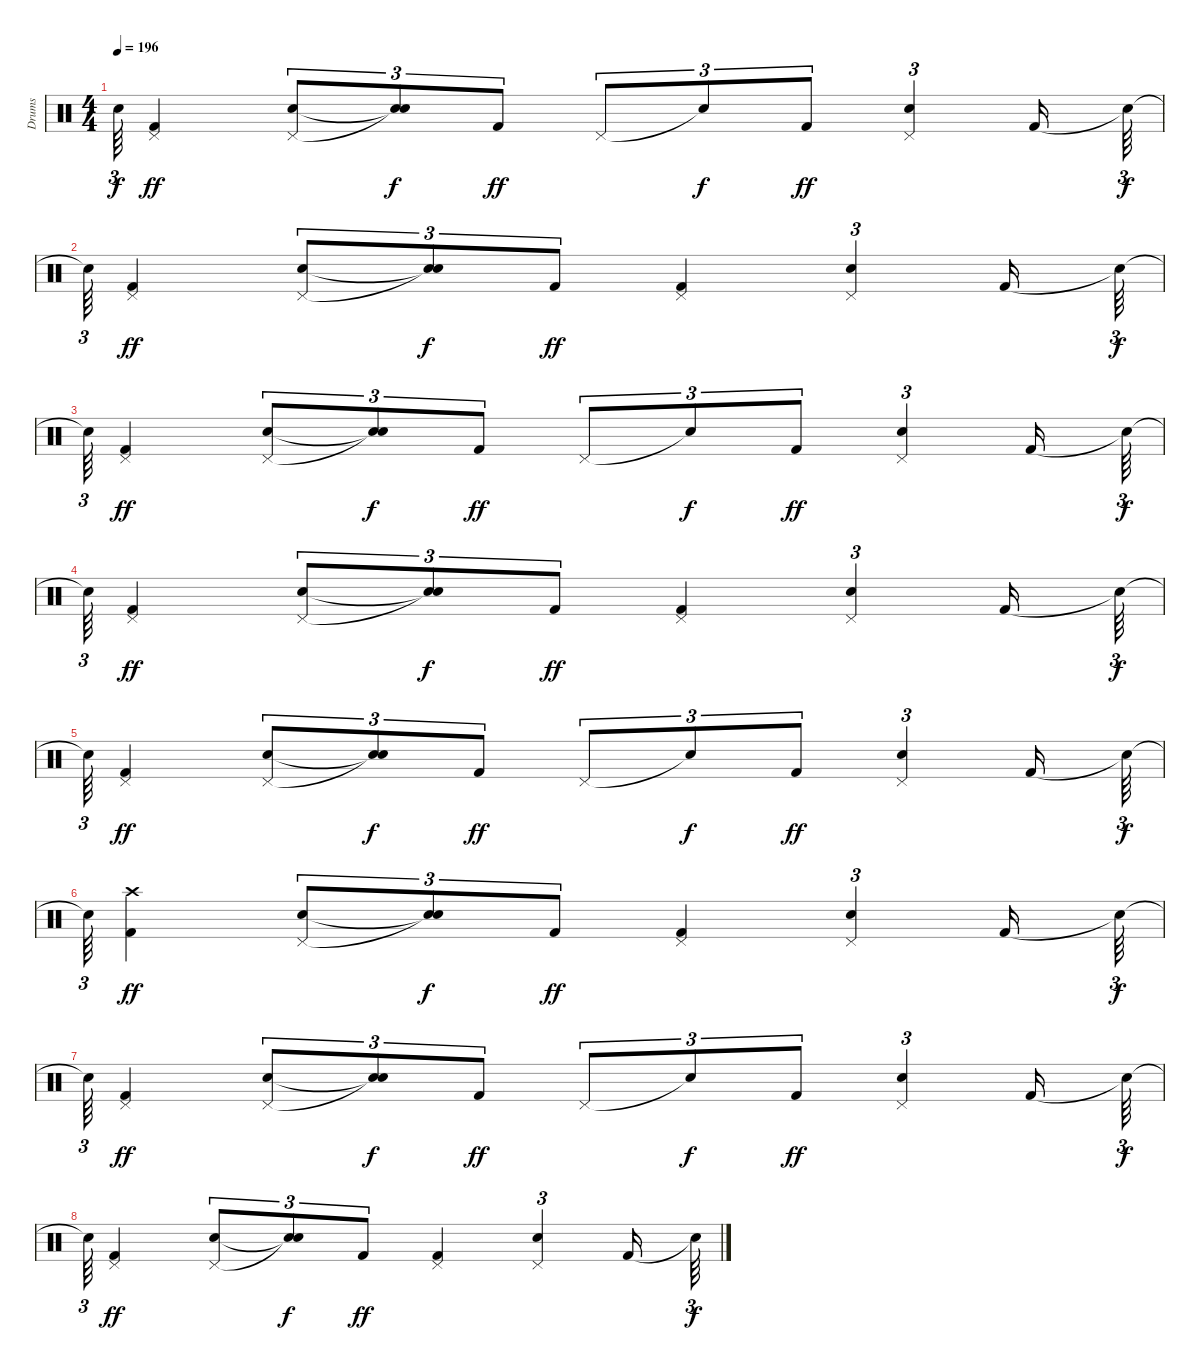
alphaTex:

\track ("Drums" "Drums") {instrument percussion}
\staff {score}
\articulation defaults
\ts (4 4)
\tempo 196
\clef neutral
\ks c "Snare (hit)"{t}.64{tu (3 2) dy f}
("Pedal Hi-Hat (hit)" "Kick (hit) 2").4{dy ff} ("Pedal Hi-Hat (hit)" "Electric Snare (hit)").8{tu (3 2)} ("Snare (hit)"{t} "Snare (hit)"{t}).8{tu (3 2) dy f} "Kick (hit) 2".8{tu (3 2) dy ff} "Pedal Hi-Hat (hit)".8{tu (3 2)} "Snare (hit)"{t}.8{tu (3 2) dy f} "Kick (hit) 2".8{tu (3 2) dy ff} ("Pedal Hi-Hat (hit)" "Electric Snare (hit)").4{tu (3 2)} "Kick (hit) 2".16 "Snare (hit)"{t}.64{tu (3 2) dy f} |
"Snare (hit)"{t}.64{tu (3 2)} ("Pedal Hi-Hat (hit)" "Kick (hit) 2").4{dy ff} ("Pedal Hi-Hat (hit)" "Electric Snare (hit)").8{tu (3 2)} ("Snare (hit)"{t} "Snare (hit)"{t}).8{tu (3 2) dy f} "Kick (hit) 2".8{tu (3 2) dy ff} ("Pedal Hi-Hat (hit)" "Kick (hit) 2").4 ("Pedal Hi-Hat (hit)" "Electric Snare (hit)").4{tu (3 2)} "Kick (hit) 2".16 "Snare (hit)"{t}.64{tu (3 2) dy f} |
"Snare (hit)"{t}.64{tu (3 2)} ("Pedal Hi-Hat (hit)" "Kick (hit) 2").4{dy ff} ("Pedal Hi-Hat (hit)" "Electric Snare (hit)").8{tu (3 2)} ("Snare (hit)"{t} "Snare (hit)"{t}).8{tu (3 2) dy f} "Kick (hit) 2".8{tu (3 2) dy ff} "Pedal Hi-Hat (hit)".8{tu (3 2)} "Snare (hit)"{t}.8{tu (3 2) dy f} "Kick (hit) 2".8{tu (3 2) dy ff} ("Pedal Hi-Hat (hit)" "Electric Snare (hit)").4{tu (3 2)} "Kick (hit) 2".16 "Snare (hit)"{t}.64{tu (3 2) dy f} |
"Snare (hit)"{t}.64{tu (3 2)} ("Pedal Hi-Hat (hit)" "Kick (hit) 2").4{dy ff} ("Pedal Hi-Hat (hit)" "Electric Snare (hit)").8{tu (3 2)} ("Snare (hit)"{t} "Snare (hit)"{t}).8{tu (3 2) dy f} "Kick (hit) 2".8{tu (3 2) dy ff} ("Pedal Hi-Hat (hit)" "Kick (hit) 2").4 ("Pedal Hi-Hat (hit)" "Electric Snare (hit)").4{tu (3 2)} "Kick (hit) 2".16 "Snare (hit)"{t}.64{tu (3 2) dy f} |
"Snare (hit)"{t}.64{tu (3 2)} ("Pedal Hi-Hat (hit)" "Kick (hit) 2").4{dy ff} ("Pedal Hi-Hat (hit)" "Electric Snare (hit)").8{tu (3 2)} ("Snare (hit)"{t} "Snare (hit)"{t}).8{tu (3 2) dy f} "Kick (hit) 2".8{tu (3 2) dy ff} "Pedal Hi-Hat (hit)".8{tu (3 2)} "Snare (hit)"{t}.8{tu (3 2) dy f} "Kick (hit) 2".8{tu (3 2) dy ff} ("Pedal Hi-Hat (hit)" "Electric Snare (hit)").4{tu (3 2)} "Kick (hit) 2".16 "Snare (hit)"{t}.64{tu (3 2) dy f} |
"Snare (hit)"{t}.64{tu (3 2)} ("Crash high (hit)" "Kick (hit) 2").4{dy ff} ("Pedal Hi-Hat (hit)" "Electric Snare (hit)").8{tu (3 2)} ("Snare (hit)"{t} "Snare (hit)"{t}).8{tu (3 2) dy f} "Kick (hit) 2".8{tu (3 2) dy ff} ("Pedal Hi-Hat (hit)" "Kick (hit) 2").4 ("Pedal Hi-Hat (hit)" "Electric Snare (hit)").4{tu (3 2)} "Kick (hit) 2".16 "Snare (hit)"{t}.64{tu (3 2) dy f} |
"Snare (hit)"{t}.64{tu (3 2)} ("Pedal Hi-Hat (hit)" "Kick (hit) 2").4{dy ff} ("Pedal Hi-Hat (hit)" "Electric Snare (hit)").8{tu (3 2)} ("Snare (hit)"{t} "Snare (hit)"{t}).8{tu (3 2) dy f} "Kick (hit) 2".8{tu (3 2) dy ff} "Pedal Hi-Hat (hit)".8{tu (3 2)} "Snare (hit)"{t}.8{tu (3 2) dy f} "Kick (hit) 2".8{tu (3 2) dy ff} ("Pedal Hi-Hat (hit)" "Electric Snare (hit)").4{tu (3 2)} "Kick (hit) 2".16 "Snare (hit)"{t}.64{tu (3 2) dy f} |
"Snare (hit)"{t}.64{tu (3 2)} ("Pedal Hi-Hat (hit)" "Kick (hit) 2").4{dy ff} ("Pedal Hi-Hat (hit)" "Electric Snare (hit)").8{tu (3 2)} ("Snare (hit)"{t} "Snare (hit)"{t}).8{tu (3 2) dy f} "Kick (hit) 2".8{tu (3 2) dy ff} ("Pedal Hi-Hat (hit)" "Kick (hit) 2").4 ("Pedal Hi-Hat (hit)" "Electric Snare (hit)").4{tu (3 2)} "Kick (hit) 2".16 "Snare (hit)"{t}.64{tu (3 2) dy f}
